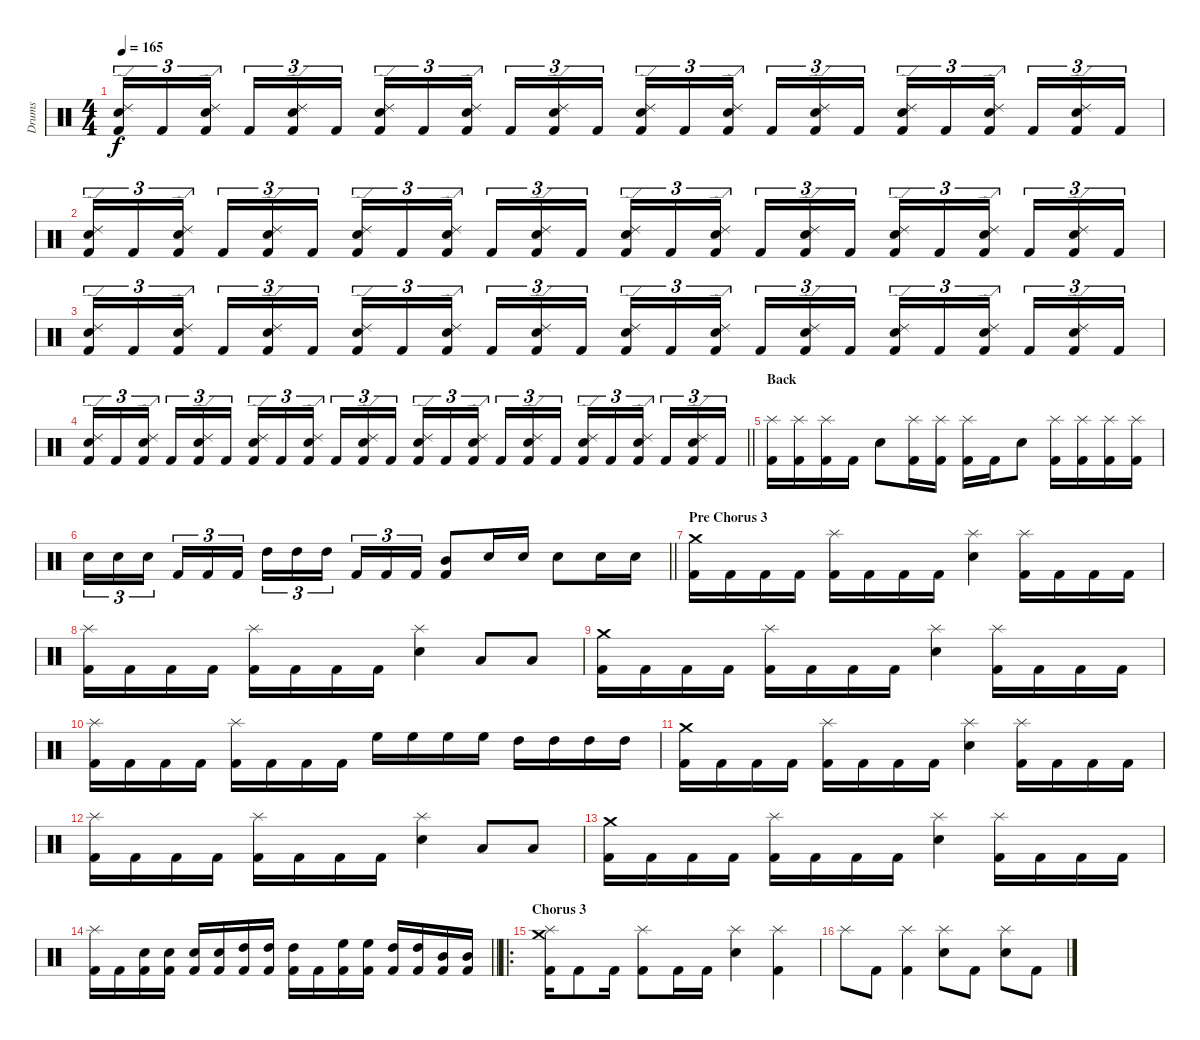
\track ("Drums" "Drums") {instrument percussion}
\staff {score}
\articulation defaults
\ts (4 4)
\tempo 165
\clef neutral
\ks c
("Ride (edge) 2" "Snare (hit) 2" "Kick (hit) 2").16{tu (3 2) dy f} "Kick (hit) 2".16{tu (3 2)} ("Ride (edge) 2" "Snare (hit) 2" "Kick (hit) 2").16{tu (3 2) beam splitsecondary} "Kick (hit) 2".16{tu (3 2)} ("Ride (edge) 2" "Snare (hit) 2" "Kick (hit) 2").16{tu (3 2)} "Kick (hit) 2".16{tu (3 2)} ("Ride (edge) 2" "Snare (hit) 2" "Kick (hit) 2").16{tu (3 2)} "Kick (hit) 2".16{tu (3 2)} ("Ride (edge) 2" "Snare (hit) 2" "Kick (hit) 2").16{tu (3 2) beam splitsecondary} "Kick (hit) 2".16{tu (3 2)} ("Ride (edge) 2" "Snare (hit) 2" "Kick (hit) 2").16{tu (3 2)} "Kick (hit) 2".16{tu (3 2)} ("Ride (edge) 2" "Snare (hit) 2" "Kick (hit) 2").16{tu (3 2)} "Kick (hit) 2".16{tu (3 2)} ("Ride (edge) 2" "Snare (hit) 2" "Kick (hit) 2").16{tu (3 2) beam splitsecondary} "Kick (hit) 2".16{tu (3 2)} ("Ride (edge) 2" "Snare (hit) 2" "Kick (hit) 2").16{tu (3 2)} "Kick (hit) 2".16{tu (3 2)} ("Ride (edge) 2" "Snare (hit) 2" "Kick (hit) 2").16{tu (3 2)} "Kick (hit) 2".16{tu (3 2)} ("Ride (edge) 2" "Snare (hit) 2" "Kick (hit) 2").16{tu (3 2) beam splitsecondary} "Kick (hit) 2".16{tu (3 2)} ("Ride (edge) 2" "Snare (hit) 2" "Kick (hit) 2").16{tu (3 2)} "Kick (hit) 2".16{tu (3 2)} |
("Ride (edge) 2" "Snare (hit) 2" "Kick (hit) 2").16{tu (3 2)} "Kick (hit) 2".16{tu (3 2)} ("Ride (edge) 2" "Snare (hit) 2" "Kick (hit) 2").16{tu (3 2) beam splitsecondary} "Kick (hit) 2".16{tu (3 2)} ("Ride (edge) 2" "Snare (hit) 2" "Kick (hit) 2").16{tu (3 2)} "Kick (hit) 2".16{tu (3 2)} ("Ride (edge) 2" "Snare (hit) 2" "Kick (hit) 2").16{tu (3 2)} "Kick (hit) 2".16{tu (3 2)} ("Ride (edge) 2" "Snare (hit) 2" "Kick (hit) 2").16{tu (3 2) beam splitsecondary} "Kick (hit) 2".16{tu (3 2)} ("Ride (edge) 2" "Snare (hit) 2" "Kick (hit) 2").16{tu (3 2)} "Kick (hit) 2".16{tu (3 2)} ("Ride (edge) 2" "Snare (hit) 2" "Kick (hit) 2").16{tu (3 2)} "Kick (hit) 2".16{tu (3 2)} ("Ride (edge) 2" "Snare (hit) 2" "Kick (hit) 2").16{tu (3 2) beam splitsecondary} "Kick (hit) 2".16{tu (3 2)} ("Ride (edge) 2" "Snare (hit) 2" "Kick (hit) 2").16{tu (3 2)} "Kick (hit) 2".16{tu (3 2)} ("Ride (edge) 2" "Snare (hit) 2" "Kick (hit) 2").16{tu (3 2)} "Kick (hit) 2".16{tu (3 2)} ("Ride (edge) 2" "Snare (hit) 2" "Kick (hit) 2").16{tu (3 2) beam splitsecondary} "Kick (hit) 2".16{tu (3 2)} ("Ride (edge) 2" "Snare (hit) 2" "Kick (hit) 2").16{tu (3 2)} "Kick (hit) 2".16{tu (3 2)} |
("Ride (edge) 2" "Snare (hit) 2" "Kick (hit) 2").16{tu (3 2)} "Kick (hit) 2".16{tu (3 2)} ("Ride (edge) 2" "Snare (hit) 2" "Kick (hit) 2").16{tu (3 2) beam splitsecondary} "Kick (hit) 2".16{tu (3 2)} ("Ride (edge) 2" "Snare (hit) 2" "Kick (hit) 2").16{tu (3 2)} "Kick (hit) 2".16{tu (3 2)} ("Ride (edge) 2" "Snare (hit) 2" "Kick (hit) 2").16{tu (3 2)} "Kick (hit) 2".16{tu (3 2)} ("Ride (edge) 2" "Snare (hit) 2" "Kick (hit) 2").16{tu (3 2) beam splitsecondary} "Kick (hit) 2".16{tu (3 2)} ("Ride (edge) 2" "Snare (hit) 2" "Kick (hit) 2").16{tu (3 2)} "Kick (hit) 2".16{tu (3 2)} ("Ride (edge) 2" "Snare (hit) 2" "Kick (hit) 2").16{tu (3 2)} "Kick (hit) 2".16{tu (3 2)} ("Ride (edge) 2" "Snare (hit) 2" "Kick (hit) 2").16{tu (3 2) beam splitsecondary} "Kick (hit) 2".16{tu (3 2)} ("Ride (edge) 2" "Snare (hit) 2" "Kick (hit) 2").16{tu (3 2)} "Kick (hit) 2".16{tu (3 2)} ("Ride (edge) 2" "Snare (hit) 2" "Kick (hit) 2").16{tu (3 2)} "Kick (hit) 2".16{tu (3 2)} ("Ride (edge) 2" "Snare (hit) 2" "Kick (hit) 2").16{tu (3 2) beam splitsecondary} "Kick (hit) 2".16{tu (3 2)} ("Ride (edge) 2" "Snare (hit) 2" "Kick (hit) 2").16{tu (3 2)} "Kick (hit) 2".16{tu (3 2)} |
\barLineRight lightlight
("Ride (edge) 2" "Snare (hit) 2" "Kick (hit) 2").16{tu (3 2)} "Kick (hit) 2".16{tu (3 2)} ("Ride (edge) 2" "Snare (hit) 2" "Kick (hit) 2").16{tu (3 2) beam splitsecondary} "Kick (hit) 2".16{tu (3 2)} ("Ride (edge) 2" "Snare (hit) 2" "Kick (hit) 2").16{tu (3 2)} "Kick (hit) 2".16{tu (3 2)} ("Ride (edge) 2" "Snare (hit) 2" "Kick (hit) 2").16{tu (3 2)} "Kick (hit) 2".16{tu (3 2)} ("Ride (edge) 2" "Snare (hit) 2" "Kick (hit) 2").16{tu (3 2) beam splitsecondary} "Kick (hit) 2".16{tu (3 2)} ("Ride (edge) 2" "Snare (hit) 2" "Kick (hit) 2").16{tu (3 2)} "Kick (hit) 2".16{tu (3 2)} ("Ride (edge) 2" "Snare (hit) 2" "Kick (hit) 2").16{tu (3 2)} "Kick (hit) 2".16{tu (3 2)} ("Ride (edge) 2" "Snare (hit) 2" "Kick (hit) 2").16{tu (3 2) beam splitsecondary} "Kick (hit) 2".16{tu (3 2)} ("Ride (edge) 2" "Snare (hit) 2" "Kick (hit) 2").16{tu (3 2)} "Kick (hit) 2".16{tu (3 2)} ("Ride (edge) 2" "Snare (hit) 2" "Kick (hit) 2").16{tu (3 2)} "Kick (hit) 2".16{tu (3 2)} ("Ride (edge) 2" "Snare (hit) 2" "Kick (hit) 2").16{tu (3 2) beam splitsecondary} "Kick (hit) 2".16{tu (3 2)} ("Ride (edge) 2" "Snare (hit) 2" "Kick (hit) 2").16{tu (3 2)} "Kick (hit) 2".16{tu (3 2)} |
\section ("" "Back")
("Splash (hit)" "Kick (hit) 2").16 ("Splash (hit)" "Kick (hit) 2").16 ("Splash (hit)" "Kick (hit) 2").16 "Kick (hit) 2".16 "Snare (hit) 2".8 ("Splash (hit)" "Kick (hit) 2").16 ("Splash (hit)" "Kick (hit) 2").16 ("Splash (hit)" "Kick (hit) 2").16 "Kick (hit) 2".16 "Snare (hit) 2".8 ("Splash (hit)" "Kick (hit) 2").16 ("Splash (hit)" "Kick (hit) 2").16 ("Splash (hit)" "Kick (hit) 2").16 ("Splash (hit)" "Kick (hit) 2").16 |
\barLineRight lightlight "Snare (hit) 2".16{tu (3 2)} "Snare (hit) 2".16{tu (3 2)} "Snare (hit) 2".16{tu (3 2) beam splitsecondary} "Kick (hit) 2".16{tu (3 2)} "Kick (hit) 2".16{tu (3 2)} "Kick (hit) 2".16{tu (3 2)} "High Tom (hit)".16{tu (3 2)} "High Tom (hit)".16{tu (3 2)} "High Tom (hit)".16{tu (3 2) beam splitsecondary} "Kick (hit) 2".16{tu (3 2)} "Kick (hit) 2".16{tu (3 2)} "Kick (hit) 2".16{tu (3 2)}
("Mid Tom (hit)" "Kick (hit) 2").8 "Snare (hit) 2".16 "Snare (hit) 2".16 "Snare (hit) 2".8 "Snare (hit) 2".16 "Snare (hit) 2".16 |
\section ("" "Pre Chorus 3")
("Crash medium (hit)" "Kick (hit) 2").16 "Kick (hit) 2".16 "Kick (hit) 2".16 "Kick (hit) 2".16 ("Splash (hit)" "Kick (hit) 2").16 "Kick (hit) 2".16 "Kick (hit) 2".16 "Kick (hit) 2".16 ("Splash (hit)" "Snare (hit) 2").4 ("Splash (hit)" "Kick (hit) 2").16 "Kick (hit) 2".16 "Kick (hit) 2".16 "Kick (hit) 2".16 |
("Splash (hit)" "Kick (hit) 2").16 "Kick (hit) 2".16 "Kick (hit) 2".16 "Kick (hit) 2".16 ("Splash (hit)" "Kick (hit) 2").16 "Kick (hit) 2".16 "Kick (hit) 2".16 "Kick (hit) 2".16 ("Splash (hit)" "Snare (hit) 2").4 "Low Tom (hit)".8 "Low Tom (hit)".8 |
("Crash medium (hit)" "Kick (hit) 2").16 "Kick (hit) 2".16 "Kick (hit) 2".16 "Kick (hit) 2".16 ("Splash (hit)" "Kick (hit) 2").16 "Kick (hit) 2".16 "Kick (hit) 2".16 "Kick (hit) 2".16 ("Splash (hit)" "Snare (hit) 2").4 ("Splash (hit)" "Kick (hit) 2").16 "Kick (hit) 2".16 "Kick (hit) 2".16 "Kick (hit) 2".16 |
("Splash (hit)" "Kick (hit) 2").16 "Kick (hit) 2".16 "Kick (hit) 2".16 "Kick (hit) 2".16 ("Splash (hit)" "Kick (hit) 2").16 "Kick (hit) 2".16 "Kick (hit) 2".16 "Kick (hit) 2".16 "High Floor Tom (hit)".16 "High Floor Tom (hit)".16 "High Floor Tom (hit)".16 "High Floor Tom (hit)".16 "High Tom (hit)".16 "High Tom (hit)".16 "High Tom (hit)".16 "High Tom (hit)".16 |
("Crash medium (hit)" "Kick (hit) 2").16 "Kick (hit) 2".16 "Kick (hit) 2".16 "Kick (hit) 2".16 ("Splash (hit)" "Kick (hit) 2").16 "Kick (hit) 2".16 "Kick (hit) 2".16 "Kick (hit) 2".16 ("Splash (hit)" "Snare (hit) 2").4 ("Splash (hit)" "Kick (hit) 2").16 "Kick (hit) 2".16 "Kick (hit) 2".16 "Kick (hit) 2".16 |
("Splash (hit)" "Kick (hit) 2").16 "Kick (hit) 2".16 "Kick (hit) 2".16 "Kick (hit) 2".16 ("Splash (hit)" "Kick (hit) 2").16 "Kick (hit) 2".16 "Kick (hit) 2".16 "Kick (hit) 2".16 ("Splash (hit)" "Snare (hit) 2").4 "Low Tom (hit)".8 "Low Tom (hit)".8 |
("Crash medium (hit)" "Kick (hit) 2").16 "Kick (hit) 2".16 "Kick (hit) 2".16 "Kick (hit) 2".16 ("Splash (hit)" "Kick (hit) 2").16 "Kick (hit) 2".16 "Kick (hit) 2".16 "Kick (hit) 2".16 ("Splash (hit)" "Snare (hit) 2").4 ("Splash (hit)" "Kick (hit) 2").16 "Kick (hit) 2".16 "Kick (hit) 2".16 "Kick (hit) 2".16 |
\barLineRight lightlight
("Splash (hit)" "Kick (hit) 2").16 "Kick (hit) 2".16 ("Snare (hit) 2" "Kick (hit) 2").16 ("Snare (hit) 2" "Kick (hit) 2").16 ("Snare (hit) 2" "Kick (hit) 2").16 ("Snare (hit) 2" "Kick (hit) 2").16 ("High Tom (hit)" "Kick (hit) 2").16 ("High Tom (hit)" "Kick (hit) 2").16 ("High Tom (hit)" "Kick (hit) 2").16 "Kick (hit) 2".16 ("High Floor Tom (hit)" "Kick (hit) 2").16 ("High Floor Tom (hit)" "Kick (hit) 2").16 ("High Tom (hit)" "Kick (hit) 2").16 ("High Tom (hit)" "Kick (hit) 2").16 ("Mid Tom (hit)" "Kick (hit) 2").16 ("Mid Tom (hit)" "Kick (hit) 2").16 |
\ro
\section ("" "Chorus 3")
("Crash medium (hit)" "Splash (hit)" "Kick (hit) 2").16 "Kick (hit) 2".8 "Kick (hit) 2".16 ("Splash (hit)" "Kick (hit) 2").8 "Kick (hit) 2".16 "Kick (hit) 2".16 ("Splash (hit)" "Snare (hit) 2").4 ("Splash (hit)" "Kick (hit) 2").4 |
"Splash (hit)".8 "Kick (hit) 2".8 ("Splash (hit)" "Kick (hit) 2").4 ("Splash (hit)" "Snare (hit) 2").8 "Kick (hit) 2".8 ("Splash (hit)" "Snare (hit) 2").8 "Kick (hit) 2".8
